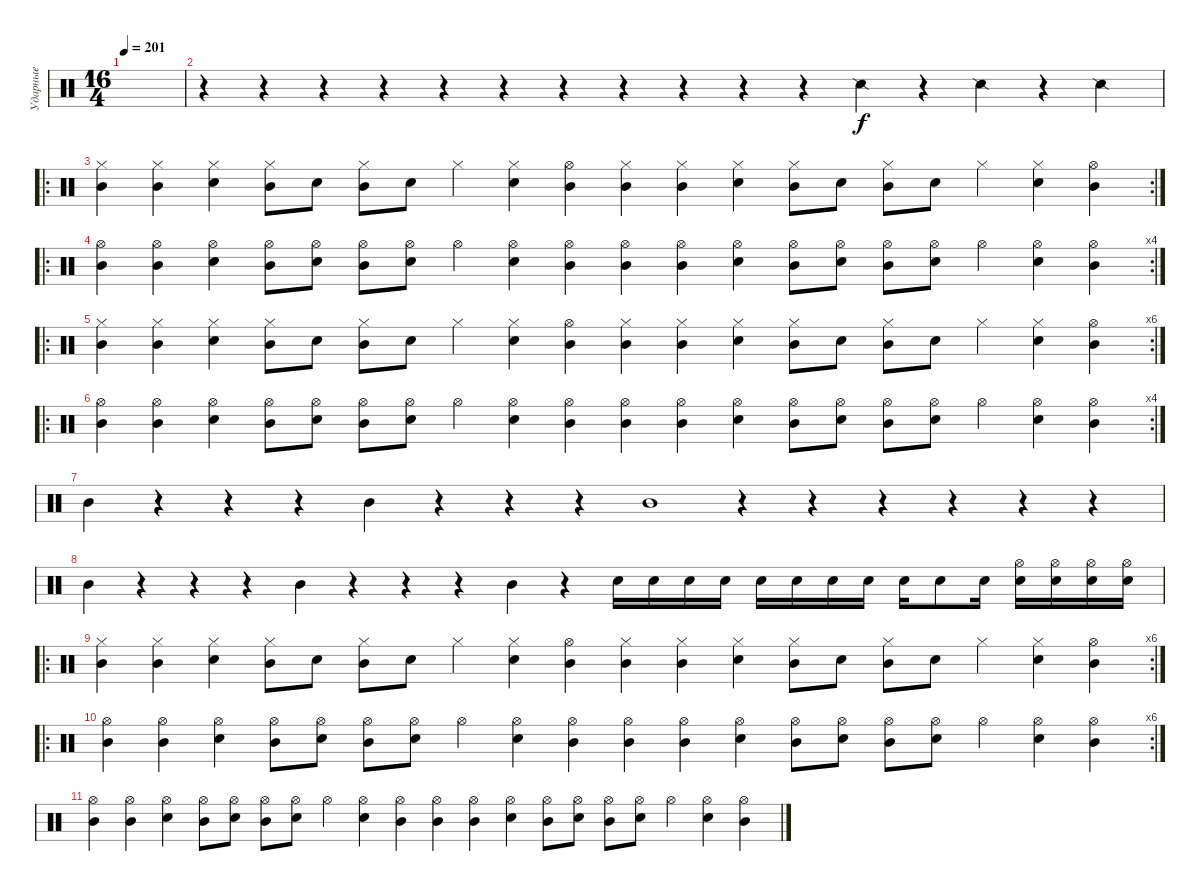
\track ("Ударные" "Ударные") {instrument percussion}
\staff {score}
\articulation defaults
\ts (16 4)
\tempo 201
\clef neutral
\ks c
|
r.4 r.4 r.4 r.4 r.4 r.4 r.4 r.4 r.4 r.4 r.4 "Snare (side stick) 2".4 r.4 "Snare (side stick) 2".4 r.4 "Snare (side stick) 2".4 |
\ro
\rc 2
("Hi-Hat (closed)" "Mid Tom (hit)").4 ("Hi-Hat (closed)" "Mid Tom (hit)").4 ("Hi-Hat (closed)" "Electric Snare (hit)").4 ("Hi-Hat (closed)" "Mid Tom (hit)").8 "Electric Snare (hit)".8 ("Hi-Hat (closed)" "Mid Tom (hit)").8 "Electric Snare (hit)".8 "Hi-Hat (closed)".4 ("Hi-Hat (closed)" "Electric Snare (hit)").4 ("Hi-Hat (open)" "Mid Tom (hit)").4 ("Hi-Hat (closed)" "Mid Tom (hit)").4 ("Hi-Hat (closed)" "Mid Tom (hit)").4 ("Hi-Hat (closed)" "Electric Snare (hit)").4 ("Hi-Hat (closed)" "Mid Tom (hit)").8 "Electric Snare (hit)".8 ("Hi-Hat (closed)" "Mid Tom (hit)").8 "Electric Snare (hit)".8 "Hi-Hat (closed)".4 ("Hi-Hat (closed)" "Electric Snare (hit)").4 ("Hi-Hat (open)" "Mid Tom (hit)").4 |
\ro
\rc 4
("Hi-Hat (open)" "Mid Tom (hit)").4 ("Hi-Hat (open)" "Mid Tom (hit)").4 ("Hi-Hat (open)" "Electric Snare (hit)").4 ("Hi-Hat (open)" "Mid Tom (hit)").8 ("Hi-Hat (open)" "Electric Snare (hit)").8 ("Hi-Hat (open)" "Mid Tom (hit)").8 ("Hi-Hat (open)" "Electric Snare (hit)").8 "Hi-Hat (open)".4 ("Hi-Hat (open)" "Electric Snare (hit)").4 ("Hi-Hat (open)" "Mid Tom (hit)").4 ("Hi-Hat (open)" "Mid Tom (hit)").4 ("Hi-Hat (open)" "Mid Tom (hit)").4 ("Hi-Hat (open)" "Electric Snare (hit)").4 ("Hi-Hat (open)" "Mid Tom (hit)").8 ("Hi-Hat (open)" "Electric Snare (hit)").8 ("Hi-Hat (open)" "Mid Tom (hit)").8 ("Hi-Hat (open)" "Electric Snare (hit)").8 "Hi-Hat (open)".4 ("Hi-Hat (open)" "Electric Snare (hit)").4 ("Hi-Hat (open)" "Mid Tom (hit)").4 |
\ro
\rc 6
("Hi-Hat (closed)" "Mid Tom (hit)").4 ("Hi-Hat (closed)" "Mid Tom (hit)").4 ("Hi-Hat (closed)" "Electric Snare (hit)").4 ("Hi-Hat (closed)" "Mid Tom (hit)").8 "Electric Snare (hit)".8 ("Hi-Hat (closed)" "Mid Tom (hit)").8 "Electric Snare (hit)".8 "Hi-Hat (closed)".4 ("Hi-Hat (closed)" "Electric Snare (hit)").4 ("Hi-Hat (open)" "Mid Tom (hit)").4 ("Hi-Hat (closed)" "Mid Tom (hit)").4 ("Hi-Hat (closed)" "Mid Tom (hit)").4 ("Hi-Hat (closed)" "Electric Snare (hit)").4 ("Hi-Hat (closed)" "Mid Tom (hit)").8 "Electric Snare (hit)".8 ("Hi-Hat (closed)" "Mid Tom (hit)").8 "Electric Snare (hit)".8 "Hi-Hat (closed)".4 ("Hi-Hat (closed)" "Electric Snare (hit)").4 ("Hi-Hat (open)" "Mid Tom (hit)").4 |
\ro
\rc 4
("Hi-Hat (open)" "Mid Tom (hit)").4 ("Hi-Hat (open)" "Mid Tom (hit)").4 ("Hi-Hat (open)" "Electric Snare (hit)").4 ("Hi-Hat (open)" "Mid Tom (hit)").8 ("Hi-Hat (open)" "Electric Snare (hit)").8 ("Hi-Hat (open)" "Mid Tom (hit)").8 ("Hi-Hat (open)" "Electric Snare (hit)").8 "Hi-Hat (open)".4 ("Hi-Hat (open)" "Electric Snare (hit)").4 ("Hi-Hat (open)" "Mid Tom (hit)").4 ("Hi-Hat (open)" "Mid Tom (hit)").4 ("Hi-Hat (open)" "Mid Tom (hit)").4 ("Hi-Hat (open)" "Electric Snare (hit)").4 ("Hi-Hat (open)" "Mid Tom (hit)").8 ("Hi-Hat (open)" "Electric Snare (hit)").8 ("Hi-Hat (open)" "Mid Tom (hit)").8 ("Hi-Hat (open)" "Electric Snare (hit)").8 "Hi-Hat (open)".4 ("Hi-Hat (open)" "Electric Snare (hit)").4 ("Hi-Hat (open)" "Mid Tom (hit)").4 |
"Mid Tom (hit)".4 r.4 r.4 r.4 "Mid Tom (hit)".4 r.4 r.4 r.4 "Mid Tom (hit)".1 r.4 r.4 r.4 r.4 r.4 r.4 |
"Mid Tom (hit)".4 r.4 r.4 r.4 "Mid Tom (hit)".4 r.4 r.4 r.4 "Mid Tom (hit)".4 r.4 "Electric Snare (hit)".16 "Electric Snare (hit)".16 "Electric Snare (hit)".16 "Electric Snare (hit)".16 "Electric Snare (hit)".16 "Electric Snare (hit)".16 "Electric Snare (hit)".16 "Snare (hit)".16 "Snare (hit)".16 "Snare (hit)".8 "Snare (hit)".16 ("Hi-Hat (open)" "Electric Snare (hit)").16 ("Hi-Hat (open)" "Electric Snare (hit)").16 ("Hi-Hat (open)" "Electric Snare (hit)").16 ("Hi-Hat (open)" "Electric Snare (hit)").16 |
\ro
\rc 6
("Hi-Hat (closed)" "Mid Tom (hit)").4 ("Hi-Hat (closed)" "Mid Tom (hit)").4 ("Hi-Hat (closed)" "Electric Snare (hit)").4 ("Hi-Hat (closed)" "Mid Tom (hit)").8 "Electric Snare (hit)".8 ("Hi-Hat (closed)" "Mid Tom (hit)").8 "Electric Snare (hit)".8 "Hi-Hat (closed)".4 ("Hi-Hat (closed)" "Electric Snare (hit)").4 ("Hi-Hat (open)" "Mid Tom (hit)").4 ("Hi-Hat (closed)" "Mid Tom (hit)").4 ("Hi-Hat (closed)" "Mid Tom (hit)").4 ("Hi-Hat (closed)" "Electric Snare (hit)").4 ("Hi-Hat (closed)" "Mid Tom (hit)").8 "Electric Snare (hit)".8 ("Hi-Hat (closed)" "Mid Tom (hit)").8 "Electric Snare (hit)".8 "Hi-Hat (closed)".4 ("Hi-Hat (closed)" "Electric Snare (hit)").4 ("Hi-Hat (open)" "Mid Tom (hit)").4 |
\ro
\rc 6
("Hi-Hat (open)" "Mid Tom (hit)").4 ("Hi-Hat (open)" "Mid Tom (hit)").4 ("Hi-Hat (open)" "Electric Snare (hit)").4 ("Hi-Hat (open)" "Mid Tom (hit)").8 ("Hi-Hat (open)" "Electric Snare (hit)").8 ("Hi-Hat (open)" "Mid Tom (hit)").8 ("Hi-Hat (open)" "Electric Snare (hit)").8 "Hi-Hat (open)".4 ("Hi-Hat (open)" "Electric Snare (hit)").4 ("Hi-Hat (open)" "Mid Tom (hit)").4 ("Hi-Hat (open)" "Mid Tom (hit)").4 ("Hi-Hat (open)" "Mid Tom (hit)").4 ("Hi-Hat (open)" "Electric Snare (hit)").4 ("Hi-Hat (open)" "Mid Tom (hit)").8 ("Hi-Hat (open)" "Electric Snare (hit)").8 ("Hi-Hat (open)" "Mid Tom (hit)").8 ("Hi-Hat (open)" "Electric Snare (hit)").8 "Hi-Hat (open)".4 ("Hi-Hat (open)" "Electric Snare (hit)").4 ("Hi-Hat (open)" "Mid Tom (hit)").4 |
("Hi-Hat (open)" "Mid Tom (hit)").4 ("Hi-Hat (open)" "Mid Tom (hit)").4 ("Hi-Hat (open)" "Electric Snare (hit)").4 ("Hi-Hat (open)" "Mid Tom (hit)").8 ("Hi-Hat (open)" "Electric Snare (hit)").8 ("Hi-Hat (open)" "Mid Tom (hit)").8 ("Hi-Hat (open)" "Electric Snare (hit)").8 "Hi-Hat (open)".4 ("Hi-Hat (open)" "Electric Snare (hit)").4 ("Hi-Hat (open)" "Mid Tom (hit)").4 ("Hi-Hat (open)" "Mid Tom (hit)").4 ("Hi-Hat (open)" "Mid Tom (hit)").4 ("Hi-Hat (open)" "Electric Snare (hit)").4 ("Hi-Hat (open)" "Mid Tom (hit)").8 ("Hi-Hat (open)" "Electric Snare (hit)").8 ("Hi-Hat (open)" "Mid Tom (hit)").8 ("Hi-Hat (open)" "Electric Snare (hit)").8 "Hi-Hat (open)".4 ("Hi-Hat (open)" "Electric Snare (hit)").4 ("Hi-Hat (open)" "Mid Tom (hit)").4
